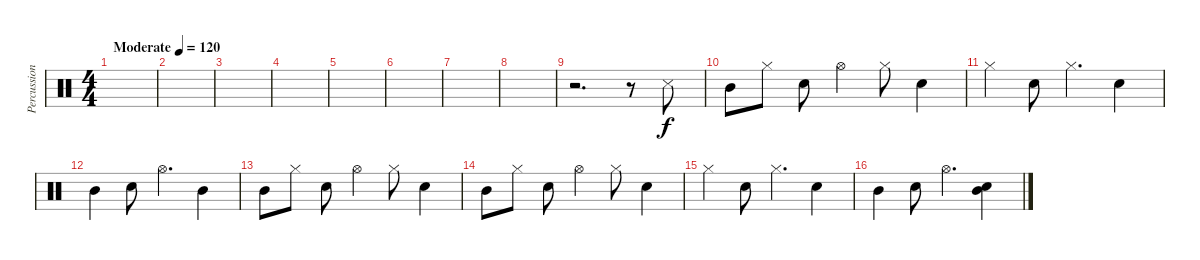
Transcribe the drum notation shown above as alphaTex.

\track ("Percussion" "Percussion") {instrument percussion}
\staff {score}
\articulation defaults
\ts (4 4)
\tempo (120 "Moderate")
\clef neutral
\ks c
|
|
|
|
|
|
|
|
r.2{d} r.8 "Snare (side stick) 3".8 |
"Mid Tom (hit)".8 "Hi-Hat (closed)".8 "Electric Snare (hit)".8 "Hi-Hat (open)".4 "Hi-Hat (closed)".8 "Electric Snare (hit)".4 |
"Hi-Hat (closed)".4 "Electric Snare (hit)".8 "Hi-Hat (closed)".4{d} "Electric Snare (hit)".4 |
"Mid Tom (hit)".4 "Electric Snare (hit)".8 "Hi-Hat (open)".4{d} "Mid Tom (hit)".4 |
"Mid Tom (hit)".8 "Hi-Hat (closed)".8 "Electric Snare (hit)".8 "Hi-Hat (open)".4 "Hi-Hat (closed)".8 "Electric Snare (hit)".4 |
"Mid Tom (hit)".8 "Hi-Hat (closed)".8 "Electric Snare (hit)".8 "Hi-Hat (open)".4 "Hi-Hat (closed)".8 "Electric Snare (hit)".4 |
"Hi-Hat (closed)".4 "Electric Snare (hit)".8 "Hi-Hat (closed)".4{d} "Electric Snare (hit)".4 |
"Mid Tom (hit)".4 "Electric Snare (hit)".8 "Hi-Hat (open)".4{d} ("Electric Snare (hit)" "Mid Tom (hit)").4
